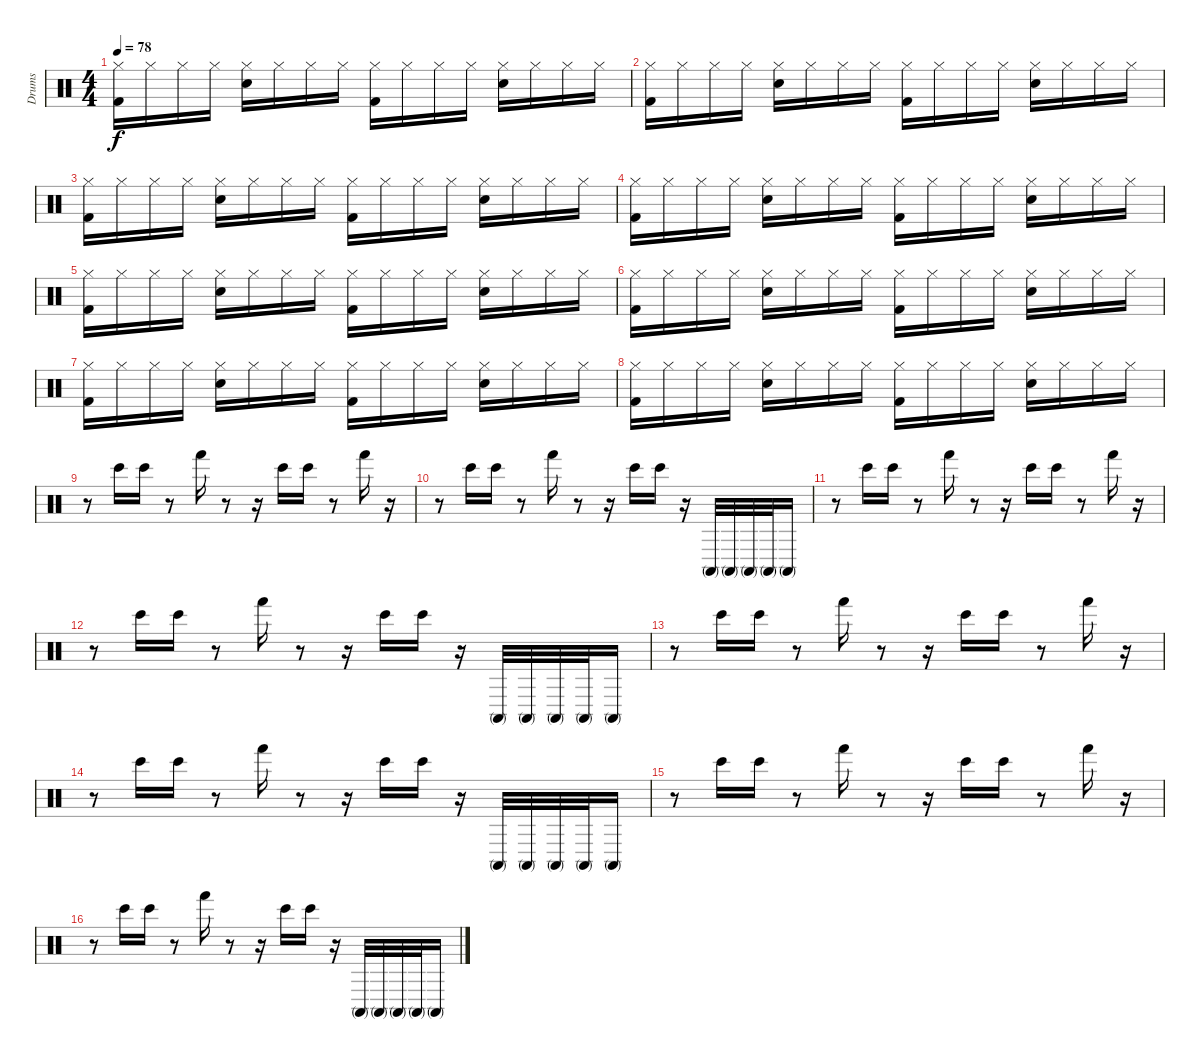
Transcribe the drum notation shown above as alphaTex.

\track ("Drums" "Drums") {instrument percussion}
\staff {score}
\articulation defaults
\ts (4 4)
\tempo 78
\clef neutral
\ks c
("Kick (hit) 2" "Hi-Hat (closed)").16{dy f} "Hi-Hat (closed)".16 "Hi-Hat (closed)".16 "Hi-Hat (closed)".16 ("Snare (hit) 2" "Hi-Hat (closed)").16 "Hi-Hat (closed)".16 "Hi-Hat (closed)".16 "Hi-Hat (closed)".16 ("Kick (hit) 2" "Hi-Hat (closed)").16 "Hi-Hat (closed)".16 "Hi-Hat (closed)".16 "Hi-Hat (closed)".16 ("Snare (hit) 2" "Hi-Hat (closed)").16 "Hi-Hat (closed)".16 "Hi-Hat (closed)".16 "Hi-Hat (closed)".16 |
("Kick (hit) 2" "Hi-Hat (closed)").16 "Hi-Hat (closed)".16 "Hi-Hat (closed)".16 "Hi-Hat (closed)".16 ("Snare (hit) 2" "Hi-Hat (closed)").16 "Hi-Hat (closed)".16 "Hi-Hat (closed)".16 "Hi-Hat (closed)".16 ("Kick (hit) 2" "Hi-Hat (closed)").16 "Hi-Hat (closed)".16 "Hi-Hat (closed)".16 "Hi-Hat (closed)".16 ("Snare (hit) 2" "Hi-Hat (closed)").16 "Hi-Hat (closed)".16 "Hi-Hat (closed)".16 "Hi-Hat (closed)".16 |
("Kick (hit) 2" "Hi-Hat (closed)").16 "Hi-Hat (closed)".16 "Hi-Hat (closed)".16 "Hi-Hat (closed)".16 ("Snare (hit) 2" "Hi-Hat (closed)").16 "Hi-Hat (closed)".16 "Hi-Hat (closed)".16 "Hi-Hat (closed)".16 ("Kick (hit) 2" "Hi-Hat (closed)").16 "Hi-Hat (closed)".16 "Hi-Hat (closed)".16 "Hi-Hat (closed)".16 ("Snare (hit) 2" "Hi-Hat (closed)").16 "Hi-Hat (closed)".16 "Hi-Hat (closed)".16 "Hi-Hat (closed)".16 |
("Kick (hit) 2" "Hi-Hat (closed)").16 "Hi-Hat (closed)".16 "Hi-Hat (closed)".16 "Hi-Hat (closed)".16 ("Snare (hit) 2" "Hi-Hat (closed)").16 "Hi-Hat (closed)".16 "Hi-Hat (closed)".16 "Hi-Hat (closed)".16 ("Kick (hit) 2" "Hi-Hat (closed)").16 "Hi-Hat (closed)".16 "Hi-Hat (closed)".16 "Hi-Hat (closed)".16 ("Snare (hit) 2" "Hi-Hat (closed)").16 "Hi-Hat (closed)".16 "Hi-Hat (closed)".16 "Hi-Hat (closed)".16 |
("Kick (hit) 2" "Hi-Hat (closed)").16 "Hi-Hat (closed)".16 "Hi-Hat (closed)".16 "Hi-Hat (closed)".16 ("Snare (hit) 2" "Hi-Hat (closed)").16 "Hi-Hat (closed)".16 "Hi-Hat (closed)".16 "Hi-Hat (closed)".16 ("Kick (hit) 2" "Hi-Hat (closed)").16 "Hi-Hat (closed)".16 "Hi-Hat (closed)".16 "Hi-Hat (closed)".16 ("Snare (hit) 2" "Hi-Hat (closed)").16 "Hi-Hat (closed)".16 "Hi-Hat (closed)".16 "Hi-Hat (closed)".16 |
("Kick (hit) 2" "Hi-Hat (closed)").16 "Hi-Hat (closed)".16 "Hi-Hat (closed)".16 "Hi-Hat (closed)".16 ("Snare (hit) 2" "Hi-Hat (closed)").16 "Hi-Hat (closed)".16 "Hi-Hat (closed)".16 "Hi-Hat (closed)".16 ("Kick (hit) 2" "Hi-Hat (closed)").16 "Hi-Hat (closed)".16 "Hi-Hat (closed)".16 "Hi-Hat (closed)".16 ("Snare (hit) 2" "Hi-Hat (closed)").16 "Hi-Hat (closed)".16 "Hi-Hat (closed)".16 "Hi-Hat (closed)".16 |
("Kick (hit) 2" "Hi-Hat (closed)").16 "Hi-Hat (closed)".16 "Hi-Hat (closed)".16 "Hi-Hat (closed)".16 ("Snare (hit) 2" "Hi-Hat (closed)").16 "Hi-Hat (closed)".16 "Hi-Hat (closed)".16 "Hi-Hat (closed)".16 ("Kick (hit) 2" "Hi-Hat (closed)").16 "Hi-Hat (closed)".16 "Hi-Hat (closed)".16 "Hi-Hat (closed)".16 ("Snare (hit) 2" "Hi-Hat (closed)").16 "Hi-Hat (closed)".16 "Hi-Hat (closed)".16 "Hi-Hat (closed)".16 |
("Kick (hit) 2" "Hi-Hat (closed)").16 "Hi-Hat (closed)".16 "Hi-Hat (closed)".16 "Hi-Hat (closed)".16 ("Snare (hit) 2" "Hi-Hat (closed)").16 "Hi-Hat (closed)".16 "Hi-Hat (closed)".16 "Hi-Hat (closed)".16 ("Kick (hit) 2" "Hi-Hat (closed)").16 "Hi-Hat (closed)".16 "Hi-Hat (closed)".16 "Hi-Hat (closed)".16 ("Snare (hit) 2" "Hi-Hat (closed)").16 "Hi-Hat (closed)".16 "Hi-Hat (closed)".16 "Hi-Hat (closed)".16 |
r.8 "Bongo High (hit)".16 "Bongo High (hit)".16 r.8 "Hand (hit)".16 r.8 r.16 "Bongo High (hit)".16 "Bongo High (hit)".16 r.8 "Hand (hit)".16 r.16 |
r.8 "Bongo High (hit)".16 "Bongo High (hit)".16 r.8 "Hand (hit)".16 r.8 r.16 "Bongo High (hit)".16 "Bongo High (hit)".16 r.16 "Conga high (mute)".32 "Conga high (mute)".32 "Conga high (mute)".32 "Conga high (mute)".32 "Conga high (mute)".16 |
r.8 "Bongo High (hit)".16 "Bongo High (hit)".16 r.8 "Hand (hit)".16 r.8 r.16 "Bongo High (hit)".16 "Bongo High (hit)".16 r.8 "Hand (hit)".16 r.16 |
r.8 "Bongo High (hit)".16 "Bongo High (hit)".16 r.8 "Hand (hit)".16 r.8 r.16 "Bongo High (hit)".16 "Bongo High (hit)".16 r.16 "Conga high (mute)".32 "Conga high (mute)".32 "Conga high (mute)".32 "Conga high (mute)".32 "Conga high (mute)".16 |
r.8 "Bongo High (hit)".16 "Bongo High (hit)".16 r.8 "Hand (hit)".16 r.8 r.16 "Bongo High (hit)".16 "Bongo High (hit)".16 r.8 "Hand (hit)".16 r.16 |
r.8 "Bongo High (hit)".16 "Bongo High (hit)".16 r.8 "Hand (hit)".16 r.8 r.16 "Bongo High (hit)".16 "Bongo High (hit)".16 r.16 "Conga high (mute)".32 "Conga high (mute)".32 "Conga high (mute)".32 "Conga high (mute)".32 "Conga high (mute)".16 |
r.8 "Bongo High (hit)".16 "Bongo High (hit)".16 r.8 "Hand (hit)".16 r.8 r.16 "Bongo High (hit)".16 "Bongo High (hit)".16 r.8 "Hand (hit)".16 r.16 |
r.8 "Bongo High (hit)".16 "Bongo High (hit)".16 r.8 "Hand (hit)".16 r.8 r.16 "Bongo High (hit)".16 "Bongo High (hit)".16 r.16 "Conga high (mute)".32 "Conga high (mute)".32 "Conga high (mute)".32 "Conga high (mute)".32 "Conga high (mute)".16
